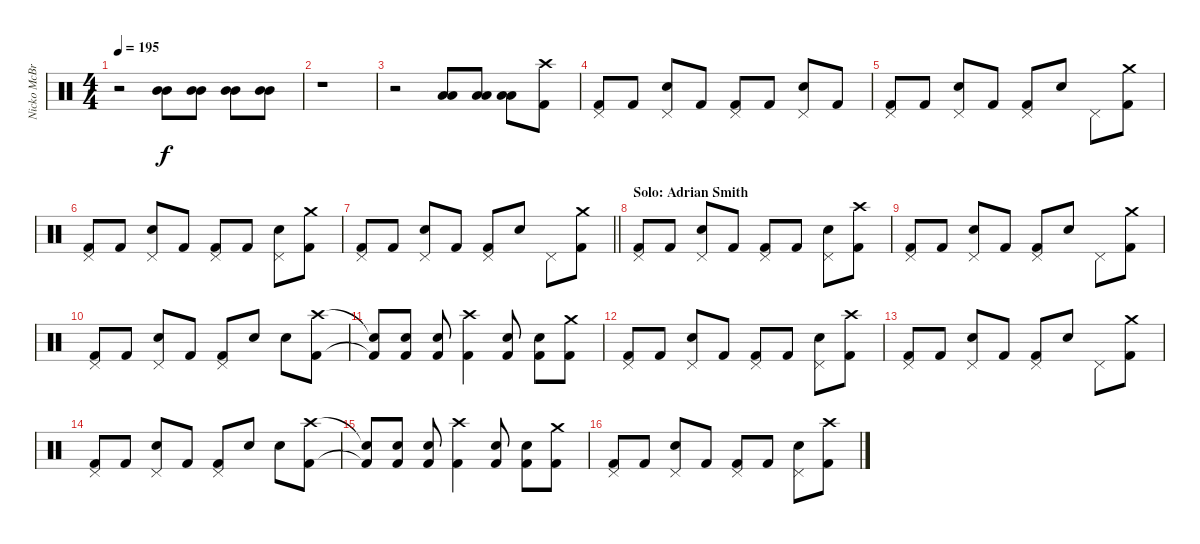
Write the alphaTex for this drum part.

\track ("Nicko McBrain" "Nicko McBr") {instrument percussion}
\staff {score}
\articulation defaults
\ts (4 4)
\tempo 195
\clef neutral
\ks c
r.2{dy f} ("Mid Tom (hit)" "Mid Tom (hit)").8 ("Mid Tom (hit)" "Mid Tom (hit)").8 ("Mid Tom (hit)" "Mid Tom (hit)").8 ("Mid Tom (hit)" "Mid Tom (hit)").8 |
r.1 |
r.2 ("Low Tom (hit)" "Low Tom (hit)").8 ("Low Tom (hit)" "Low Tom (hit)").8 ("Low Tom (hit)" "Low Tom (hit)").8 ("Crash high (hit)" "Kick (hit) 2").8 |
("Pedal Hi-Hat (hit)" "Kick (hit) 2").8 "Kick (hit) 2".8 ("Pedal Hi-Hat (hit)" "Snare (hit) 2").8 "Kick (hit) 2".8 ("Pedal Hi-Hat (hit)" "Kick (hit) 2").8 "Kick (hit) 2".8 ("Pedal Hi-Hat (hit)" "Snare (hit) 2").8 "Kick (hit) 2".8 |
("Pedal Hi-Hat (hit)" "Kick (hit) 2").8 "Kick (hit) 2".8 ("Pedal Hi-Hat (hit)" "Snare (hit) 2").8 "Kick (hit) 2".8 ("Pedal Hi-Hat (hit)" "Kick (hit) 2").8 "Snare (hit) 2".8 "Pedal Hi-Hat (hit)".8 ("Crash medium (hit)" "Kick (hit) 2").8 |
("Pedal Hi-Hat (hit)" "Kick (hit) 2").8 "Kick (hit) 2".8 ("Pedal Hi-Hat (hit)" "Snare (hit) 2").8 "Kick (hit) 2".8 ("Pedal Hi-Hat (hit)" "Kick (hit) 2").8 "Kick (hit) 2".8 ("Pedal Hi-Hat (hit)" "Snare (hit) 2").8 ("Crash medium (hit)" "Kick (hit) 2").8 |
\barLineRight lightlight
("Pedal Hi-Hat (hit)" "Kick (hit) 2").8 "Kick (hit) 2".8 ("Pedal Hi-Hat (hit)" "Snare (hit) 2").8 "Kick (hit) 2".8 ("Pedal Hi-Hat (hit)" "Kick (hit) 2").8 "Snare (hit) 2".8 "Pedal Hi-Hat (hit)".8 ("Crash medium (hit)" "Kick (hit) 2").8 |
\section ("" "Solo: Adrian Smith")
("Pedal Hi-Hat (hit)" "Kick (hit) 2").8 "Kick (hit) 2".8 ("Pedal Hi-Hat (hit)" "Snare (hit) 2").8 "Kick (hit) 2".8 ("Pedal Hi-Hat (hit)" "Kick (hit) 2").8 "Kick (hit) 2".8 ("Pedal Hi-Hat (hit)" "Snare (hit) 2").8 ("Crash high (hit)" "Kick (hit) 2").8 |
("Pedal Hi-Hat (hit)" "Kick (hit) 2").8 "Kick (hit) 2".8 ("Pedal Hi-Hat (hit)" "Snare (hit) 2").8 "Kick (hit) 2".8 ("Pedal Hi-Hat (hit)" "Kick (hit) 2").8 "Snare (hit) 2".8 "Pedal Hi-Hat (hit)".8 ("Crash medium (hit)" "Kick (hit) 2").8 |
("Pedal Hi-Hat (hit)" "Kick (hit) 2").8 "Kick (hit) 2".8 ("Pedal Hi-Hat (hit)" "Snare (hit) 2").8 "Kick (hit) 2".8 ("Pedal Hi-Hat (hit)" "Kick (hit) 2").8 "Snare (hit) 2".8 "Snare (hit) 2".8 ("Crash high (hit)" "Kick (hit) 2").8 |
("Snare (hit)"{t} "Kick (hit) 2"{t}).8 ("Snare (hit) 2" "Kick (hit) 2").8 ("Snare (hit) 2" "Kick (hit) 2").8 ("Crash high (hit)" "Kick (hit) 2").4 ("Snare (hit) 2" "Kick (hit) 2").8 ("Snare (hit) 2" "Kick (hit) 2").8 ("Crash medium (hit)" "Kick (hit) 2").8 |
("Pedal Hi-Hat (hit)" "Kick (hit) 2").8 "Kick (hit) 2".8 ("Pedal Hi-Hat (hit)" "Snare (hit) 2").8 "Kick (hit) 2".8 ("Pedal Hi-Hat (hit)" "Kick (hit) 2").8 "Kick (hit) 2".8 ("Pedal Hi-Hat (hit)" "Snare (hit) 2").8 ("Crash high (hit)" "Kick (hit) 2").8 |
("Pedal Hi-Hat (hit)" "Kick (hit) 2").8 "Kick (hit) 2".8 ("Pedal Hi-Hat (hit)" "Snare (hit) 2").8 "Kick (hit) 2".8 ("Pedal Hi-Hat (hit)" "Kick (hit) 2").8 "Snare (hit) 2".8 "Pedal Hi-Hat (hit)".8 ("Crash medium (hit)" "Kick (hit) 2").8 |
("Pedal Hi-Hat (hit)" "Kick (hit) 2").8 "Kick (hit) 2".8 ("Pedal Hi-Hat (hit)" "Snare (hit) 2").8 "Kick (hit) 2".8 ("Pedal Hi-Hat (hit)" "Kick (hit) 2").8 "Snare (hit) 2".8 "Snare (hit) 2".8 ("Crash high (hit)" "Kick (hit) 2").8 |
("Snare (hit)"{t} "Kick (hit) 2"{t}).8 ("Snare (hit) 2" "Kick (hit) 2").8 ("Snare (hit) 2" "Kick (hit) 2").8 ("Crash high (hit)" "Kick (hit) 2").4 ("Snare (hit) 2" "Kick (hit) 2").8 ("Snare (hit) 2" "Kick (hit) 2").8 ("Crash medium (hit)" "Kick (hit) 2").8 |
("Pedal Hi-Hat (hit)" "Kick (hit) 2").8 "Kick (hit) 2".8 ("Pedal Hi-Hat (hit)" "Snare (hit) 2").8 "Kick (hit) 2".8 ("Pedal Hi-Hat (hit)" "Kick (hit) 2").8 "Kick (hit) 2".8 ("Pedal Hi-Hat (hit)" "Snare (hit) 2").8 ("Crash high (hit)" "Kick (hit) 2").8
